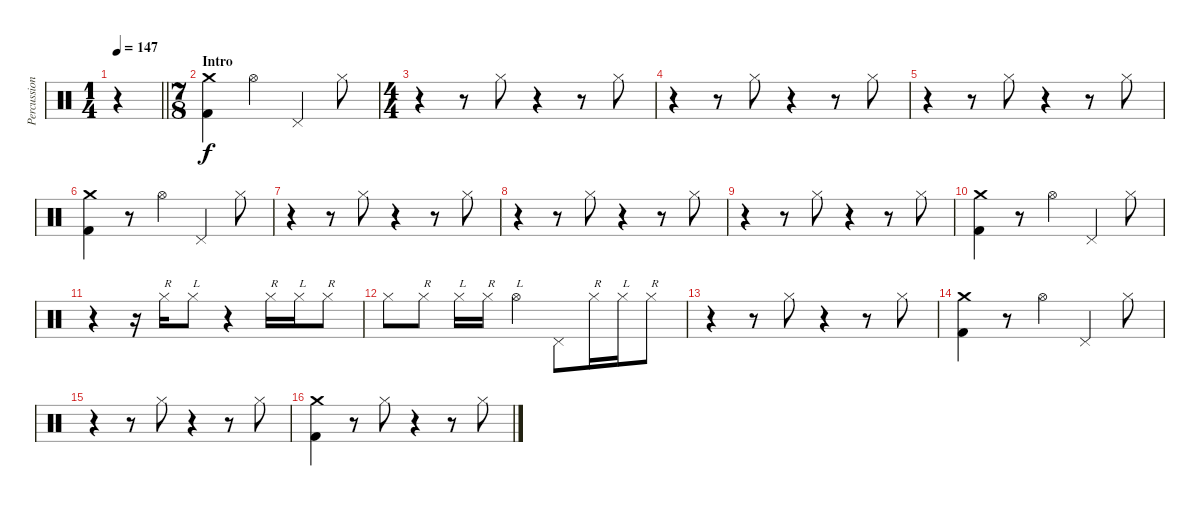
\track ("Percussion" "Percussion") {instrument percussion}
\staff {score}
\articulation defaults
\ts (1 4)
\tempo 147
\clef neutral
\barLineRight lightlight
\ks c
r.4{dy f} |
\ts (7 8)
\section ("" "Intro")
("Crash medium (hit)" "Kick (hit) 2").4 "Hi-Hat (open)".4 "Pedal Hi-Hat (hit)".4 "Hi-Hat (closed)".8 |
\ts (4 4)
r.4 r.8 "Hi-Hat (closed)".8 r.4 r.8 "Hi-Hat (closed)".8 |
r.4 r.8 "Hi-Hat (closed)".8 r.4 r.8 "Hi-Hat (closed)".8 |
r.4 r.8 "Hi-Hat (closed)".8 r.4 r.8 "Hi-Hat (closed)".8 |
("Crash medium (hit)" "Kick (hit) 2").4 r.8 "Hi-Hat (open)".4 "Pedal Hi-Hat (hit)".4 "Hi-Hat (closed)".8 |
r.4 r.8 "Hi-Hat (closed)".8 r.4 r.8 "Hi-Hat (closed)".8 |
r.4 r.8 "Hi-Hat (closed)".8 r.4 r.8 "Hi-Hat (closed)".8 |
r.4 r.8 "Hi-Hat (closed)".8 r.4 r.8 "Hi-Hat (closed)".8 |
("Crash medium (hit)" "Kick (hit) 2").4 r.8 "Hi-Hat (open)".4 "Pedal Hi-Hat (hit)".4 "Hi-Hat (closed)".8 |
r.4 r.16 "Hi-Hat (closed)".16{txt "R"} "Hi-Hat (closed)".8{txt "L"} r.4 "Hi-Hat (closed)".16{txt "R"} "Hi-Hat (closed)".16{txt "L"} "Hi-Hat (closed)".8{txt "R"} |
"Hi-Hat (closed)".8 "Hi-Hat (closed)".8{txt "R"} "Hi-Hat (closed)".16{txt "L"} "Hi-Hat (closed)".16{txt "R"} "Hi-Hat (open)".4{txt "L"} "Pedal Hi-Hat (hit)".8{beam merge} "Hi-Hat (closed)".16{txt "R"} "Hi-Hat (closed)".16{txt "L"} "Hi-Hat (closed)".8{txt "R"} |
r.4 r.8 "Hi-Hat (closed)".8 r.4 r.8 "Hi-Hat (closed)".8 |
("Crash medium (hit)" "Kick (hit) 2").4 r.8 "Hi-Hat (open)".4 "Pedal Hi-Hat (hit)".4 "Hi-Hat (closed)".8 |
r.4 r.8 "Hi-Hat (closed)".8 r.4 r.8 "Hi-Hat (closed)".8 |
("Crash medium (hit)" "Kick (hit) 2").4 r.8 "Hi-Hat (closed)".8 r.4 r.8 "Hi-Hat (closed)".8
